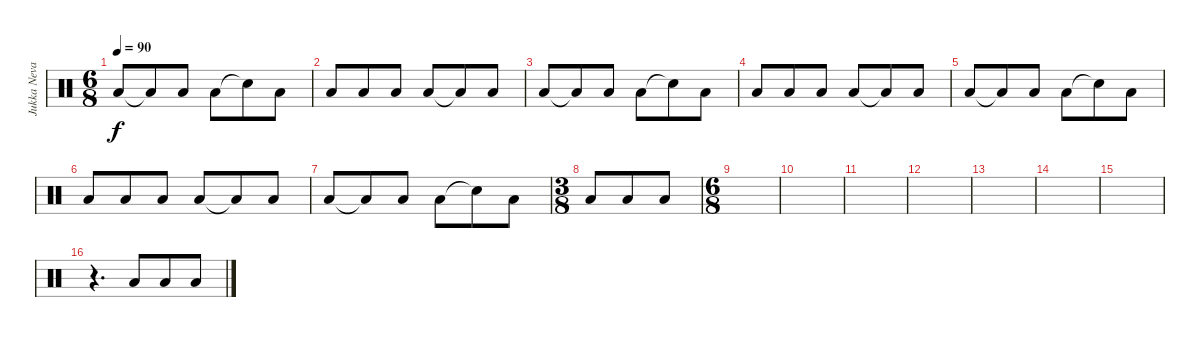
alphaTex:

\track ("Jukka Nevalainen" "Jukka Neva") {instrument percussion}
\staff {score}
\articulation defaults
\ts (6 8)
\tempo 90
\clef neutral
\ks c "Low Floor Tom (hit)".8{dy f} "Low Floor Tom (hit)"{t}.8 "Low Floor Tom (hit)".8 "Low Floor Tom (hit)".8 "Snare (hit)"{t}.8 "Low Floor Tom (hit)".8
|
"Low Floor Tom (hit)".8 "Low Floor Tom (hit)".8 "Low Floor Tom (hit)".8 "Low Floor Tom (hit)".8 "Low Floor Tom (hit)"{t}.8 "Low Floor Tom (hit)".8 |
"Low Floor Tom (hit)".8 "Low Floor Tom (hit)"{t}.8 "Low Floor Tom (hit)".8 "Low Floor Tom (hit)".8 "Snare (hit)"{t}.8 "Low Floor Tom (hit)".8 |
"Low Floor Tom (hit)".8 "Low Floor Tom (hit)".8 "Low Floor Tom (hit)".8 "Low Floor Tom (hit)".8 "Low Floor Tom (hit)"{t}.8 "Low Floor Tom (hit)".8 |
"Low Floor Tom (hit)".8 "Low Floor Tom (hit)"{t}.8 "Low Floor Tom (hit)".8 "Low Floor Tom (hit)".8 "Snare (hit)"{t}.8 "Low Floor Tom (hit)".8 |
"Low Floor Tom (hit)".8 "Low Floor Tom (hit)".8 "Low Floor Tom (hit)".8 "Low Floor Tom (hit)".8 "Low Floor Tom (hit)"{t}.8 "Low Floor Tom (hit)".8 |
"Low Floor Tom (hit)".8 "Low Floor Tom (hit)"{t}.8 "Low Floor Tom (hit)".8 "Low Floor Tom (hit)".8 "Snare (hit)"{t}.8 "Low Floor Tom (hit)".8 |
\ts (3 8)
"Low Floor Tom (hit)".8 "Low Floor Tom (hit)".8 "Low Floor Tom (hit)".8 |
\ts (6 8)
|
|
|
|
|
|
|
r.4{d} "Low Floor Tom (hit)".8 "Low Floor Tom (hit)".8 "Low Floor Tom (hit)".8
